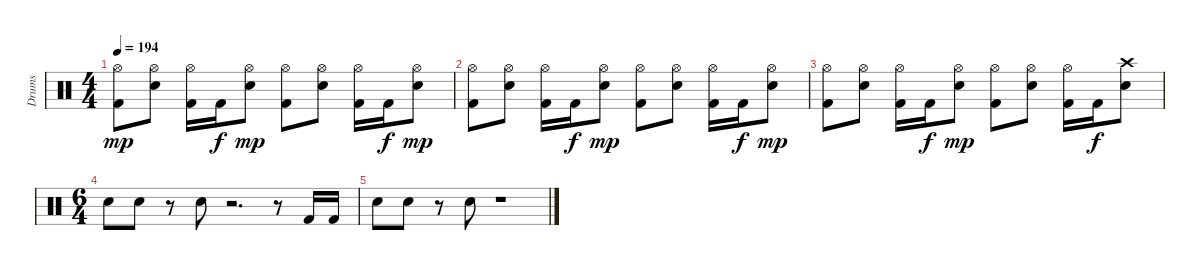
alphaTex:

\track ("Drums" "Drums") {instrument percussion}
\staff {score}
\articulation defaults
\ts (4 4)
\tempo 194
\clef neutral
\ks c
("Hi-Hat (open)" "Kick (hit) 2").8{dy mp} ("Hi-Hat (open)" "Snare (hit) 2").8 ("Hi-Hat (open)" "Kick (hit) 2").16 "Kick (hit) 2".16{dy f} ("Hi-Hat (open)" "Snare (hit) 2").8{dy mp} ("Hi-Hat (open)" "Kick (hit) 2").8 ("Hi-Hat (open)" "Snare (hit) 2").8 ("Hi-Hat (open)" "Kick (hit) 2").16 "Kick (hit) 2".16{dy f} ("Hi-Hat (open)" "Snare (hit) 2").8{dy mp} |
("Hi-Hat (open)" "Kick (hit) 2").8 ("Hi-Hat (open)" "Snare (hit) 2").8 ("Hi-Hat (open)" "Kick (hit) 2").16 "Kick (hit) 2".16{dy f} ("Hi-Hat (open)" "Snare (hit) 2").8{dy mp} ("Hi-Hat (open)" "Kick (hit) 2").8 ("Hi-Hat (open)" "Snare (hit) 2").8 ("Hi-Hat (open)" "Kick (hit) 2").16 "Kick (hit) 2".16{dy f} ("Hi-Hat (open)" "Snare (hit) 2").8{dy mp} |
("Hi-Hat (open)" "Kick (hit) 2").8 ("Hi-Hat (open)" "Snare (hit) 2").8 ("Hi-Hat (open)" "Kick (hit) 2").16 "Kick (hit) 2".16{dy f} ("Hi-Hat (open)" "Snare (hit) 2").8{dy mp} ("Hi-Hat (open)" "Kick (hit) 2").8 ("Hi-Hat (open)" "Snare (hit) 2").8 ("Hi-Hat (open)" "Kick (hit) 2").16 "Kick (hit) 2".16{dy f} ("Crash high (hit)" "Snare (hit) 2").8 |
\ts (6 4)
"Snare (hit) 2".8 "Snare (hit) 2".8 r.8 "Snare (hit) 2".8 r.2{d} r.8 "Kick (hit) 2".16 "Kick (hit) 2".16 |
"Snare (hit) 2".8 "Snare (hit) 2".8 r.8 "Snare (hit) 2".8 r.1
